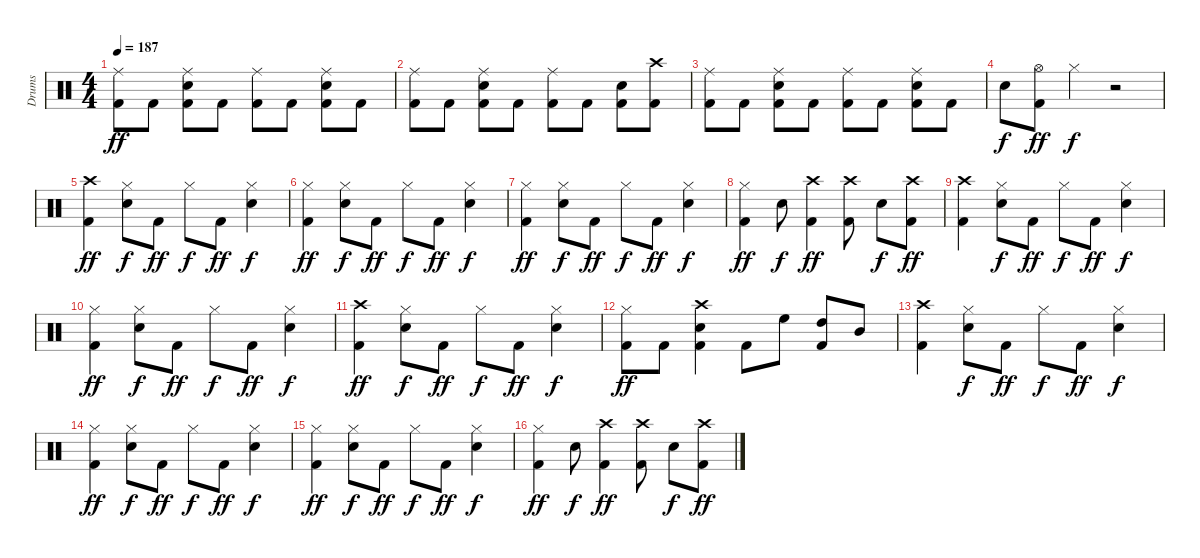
\track ("Drums" "Drums") {instrument percussion}
\staff {score}
\articulation defaults
\ts (4 4)
\tempo 187
\clef neutral
\ks c
("Ride (middle)" "Kick (hit) 2").8{dy ff} "Kick (hit) 2".8 ("Ride (middle)" "Electric Snare (hit)" "Kick (hit) 2").8 "Kick (hit) 2".8 ("Ride (middle)" "Kick (hit) 2").8 "Kick (hit) 2".8 ("Ride (middle)" "Electric Snare (hit)" "Kick (hit) 2").8 "Kick (hit) 2".8 |
("Ride (middle)" "Kick (hit) 2").8 "Kick (hit) 2".8 ("Ride (middle)" "Electric Snare (hit)" "Kick (hit) 2").8 "Kick (hit) 2".8 ("Ride (middle)" "Kick (hit) 2").8 "Kick (hit) 2".8 ("Electric Snare (hit)" "Kick (hit) 2").8 ("Crash high (hit)" "Kick (hit) 2").8 |
("Ride (middle)" "Kick (hit) 2").8 "Kick (hit) 2".8 ("Ride (middle)" "Electric Snare (hit)" "Kick (hit) 2").8 "Kick (hit) 2".8 ("Ride (middle)" "Kick (hit) 2").8 "Kick (hit) 2".8 ("Ride (middle)" "Electric Snare (hit)" "Kick (hit) 2").8 "Kick (hit) 2".8 |
"Electric Snare (hit)".8{dy f} ("Hi-Hat (open)" "Kick (hit) 2").8{dy ff} "Hi-Hat (closed)".4{dy f} r.2 |
("Crash high (hit)" "Kick (hit) 2").4{dy ff} ("Hi-Hat (closed)" "Electric Snare (hit)").8{dy f} "Kick (hit) 2".8{dy ff} "Hi-Hat (closed)".8{dy f} "Kick (hit) 2".8{dy ff} ("Hi-Hat (closed)" "Electric Snare (hit)").4{dy f} |
("Hi-Hat (closed)" "Kick (hit) 2").4{dy ff} ("Hi-Hat (closed)" "Electric Snare (hit)").8{dy f} "Kick (hit) 2".8{dy ff} "Hi-Hat (closed)".8{dy f} "Kick (hit) 2".8{dy ff} ("Hi-Hat (closed)" "Electric Snare (hit)").4{dy f} |
("Hi-Hat (closed)" "Kick (hit) 2").4{dy ff} ("Hi-Hat (closed)" "Electric Snare (hit)").8{dy f} "Kick (hit) 2".8{dy ff} "Hi-Hat (closed)".8{dy f} "Kick (hit) 2".8{dy ff} ("Hi-Hat (closed)" "Electric Snare (hit)").4{dy f} |
("Hi-Hat (closed)" "Kick (hit) 2").4{dy ff} "Electric Snare (hit)".8{dy f} ("Crash high (hit)" "Kick (hit) 2").4{dy ff} ("Crash high (hit)" "Kick (hit) 2").8 "Electric Snare (hit)".8{dy f} ("Crash high (hit)" "Kick (hit) 2").8{dy ff} |
("Crash high (hit)" "Kick (hit) 2").4 ("Hi-Hat (closed)" "Electric Snare (hit)").8{dy f} "Kick (hit) 2".8{dy ff} "Hi-Hat (closed)".8{dy f} "Kick (hit) 2".8{dy ff} ("Hi-Hat (closed)" "Electric Snare (hit)").4{dy f} |
("Hi-Hat (closed)" "Kick (hit) 2").4{dy ff} ("Hi-Hat (closed)" "Electric Snare (hit)").8{dy f} "Kick (hit) 2".8{dy ff} "Hi-Hat (closed)".8{dy f} "Kick (hit) 2".8{dy ff} ("Hi-Hat (closed)" "Electric Snare (hit)").4{dy f} |
("Crash high (hit)" "Kick (hit) 2").4{dy ff} ("Hi-Hat (closed)" "Electric Snare (hit)").8{dy f} "Kick (hit) 2".8{dy ff} "Hi-Hat (closed)".8{dy f} "Kick (hit) 2".8{dy ff} ("Hi-Hat (closed)" "Electric Snare (hit)").4{dy f} |
("Hi-Hat (closed)" "Kick (hit) 2").8{dy ff} "Kick (hit) 2".8 ("Crash high (hit)" "Electric Snare (hit)" "Kick (hit) 2").4 "Kick (hit) 2".8 "High Floor Tom (hit)".8 ("High Tom (hit)" "Kick (hit) 2").8 "Mid Tom (hit)".8 |
("Crash high (hit)" "Kick (hit) 2").4 ("Hi-Hat (closed)" "Electric Snare (hit)").8{dy f} "Kick (hit) 2".8{dy ff} "Hi-Hat (closed)".8{dy f} "Kick (hit) 2".8{dy ff} ("Hi-Hat (closed)" "Electric Snare (hit)").4{dy f} |
("Hi-Hat (closed)" "Kick (hit) 2").4{dy ff} ("Hi-Hat (closed)" "Electric Snare (hit)").8{dy f} "Kick (hit) 2".8{dy ff} "Hi-Hat (closed)".8{dy f} "Kick (hit) 2".8{dy ff} ("Hi-Hat (closed)" "Electric Snare (hit)").4{dy f} |
("Hi-Hat (closed)" "Kick (hit) 2").4{dy ff} ("Hi-Hat (closed)" "Electric Snare (hit)").8{dy f} "Kick (hit) 2".8{dy ff} "Hi-Hat (closed)".8{dy f} "Kick (hit) 2".8{dy ff} ("Hi-Hat (closed)" "Electric Snare (hit)").4{dy f} |
("Hi-Hat (closed)" "Kick (hit) 2").4{dy ff} "Electric Snare (hit)".8{dy f} ("Crash high (hit)" "Kick (hit) 2").4{dy ff} ("Crash high (hit)" "Kick (hit) 2").8 "Electric Snare (hit)".8{dy f} ("Crash high (hit)" "Kick (hit) 2").8{dy ff}
